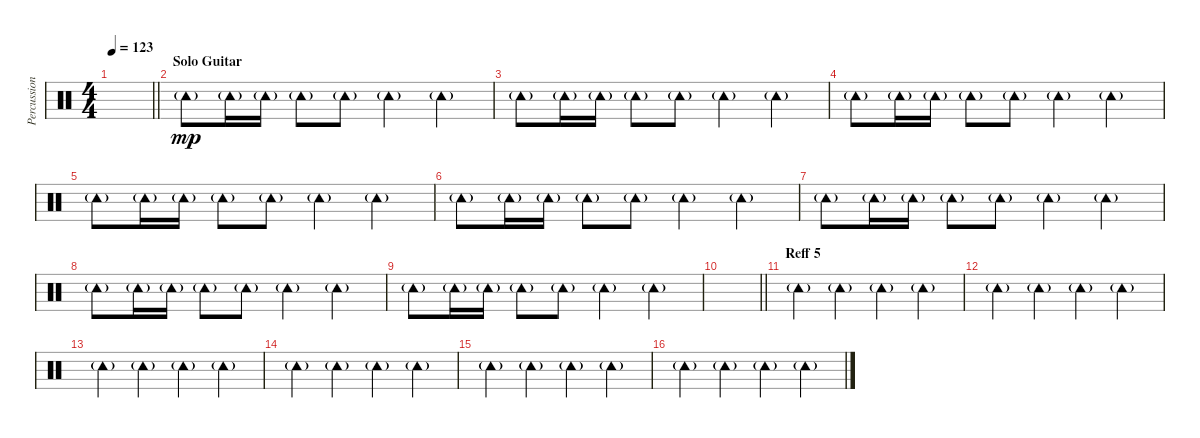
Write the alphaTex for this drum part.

\track ("Percussion 2" "Percussion") {instrument percussion}
\staff {score}
\articulation defaults
\ts (4 4)
\tempo 123
\clef neutral
\barLineRight lightlight
\ks c
|
\section ("" "Solo Guitar")
"Tambourine (hit)"{g}.8{dy mp} "Tambourine (hit)"{g}.16 "Tambourine (hit)"{g}.16 "Tambourine (hit)"{g}.8 "Tambourine (hit)"{g}.8 "Tambourine (hit)"{g}.4 "Tambourine (hit)"{g}.4 |
"Tambourine (hit)"{g}.8 "Tambourine (hit)"{g}.16 "Tambourine (hit)"{g}.16 "Tambourine (hit)"{g}.8 "Tambourine (hit)"{g}.8 "Tambourine (hit)"{g}.4 "Tambourine (hit)"{g}.4 |
"Tambourine (hit)"{g}.8 "Tambourine (hit)"{g}.16 "Tambourine (hit)"{g}.16 "Tambourine (hit)"{g}.8 "Tambourine (hit)"{g}.8 "Tambourine (hit)"{g}.4 "Tambourine (hit)"{g}.4 |
"Tambourine (hit)"{g}.8 "Tambourine (hit)"{g}.16 "Tambourine (hit)"{g}.16 "Tambourine (hit)"{g}.8 "Tambourine (hit)"{g}.8 "Tambourine (hit)"{g}.4 "Tambourine (hit)"{g}.4 |
"Tambourine (hit)"{g}.8 "Tambourine (hit)"{g}.16 "Tambourine (hit)"{g}.16 "Tambourine (hit)"{g}.8 "Tambourine (hit)"{g}.8 "Tambourine (hit)"{g}.4 "Tambourine (hit)"{g}.4 |
"Tambourine (hit)"{g}.8 "Tambourine (hit)"{g}.16 "Tambourine (hit)"{g}.16 "Tambourine (hit)"{g}.8 "Tambourine (hit)"{g}.8 "Tambourine (hit)"{g}.4 "Tambourine (hit)"{g}.4 |
"Tambourine (hit)"{g}.8 "Tambourine (hit)"{g}.16 "Tambourine (hit)"{g}.16 "Tambourine (hit)"{g}.8 "Tambourine (hit)"{g}.8 "Tambourine (hit)"{g}.4 "Tambourine (hit)"{g}.4 |
"Tambourine (hit)"{g}.8 "Tambourine (hit)"{g}.16 "Tambourine (hit)"{g}.16 "Tambourine (hit)"{g}.8 "Tambourine (hit)"{g}.8 "Tambourine (hit)"{g}.4 "Tambourine (hit)"{g}.4 |
\barLineRight lightlight
|
\section ("" "Reff 5")
"Tambourine (hit)"{g}.4 "Tambourine (hit)"{g}.4 "Tambourine (hit)"{g}.4 "Tambourine (hit)"{g}.4 |
"Tambourine (hit)"{g}.4 "Tambourine (hit)"{g}.4 "Tambourine (hit)"{g}.4 "Tambourine (hit)"{g}.4 |
"Tambourine (hit)"{g}.4 "Tambourine (hit)"{g}.4 "Tambourine (hit)"{g}.4 "Tambourine (hit)"{g}.4 |
"Tambourine (hit)"{g}.4 "Tambourine (hit)"{g}.4 "Tambourine (hit)"{g}.4 "Tambourine (hit)"{g}.4 |
"Tambourine (hit)"{g}.4 "Tambourine (hit)"{g}.4 "Tambourine (hit)"{g}.4 "Tambourine (hit)"{g}.4 |
"Tambourine (hit)"{g}.4 "Tambourine (hit)"{g}.4 "Tambourine (hit)"{g}.4 "Tambourine (hit)"{g}.4
